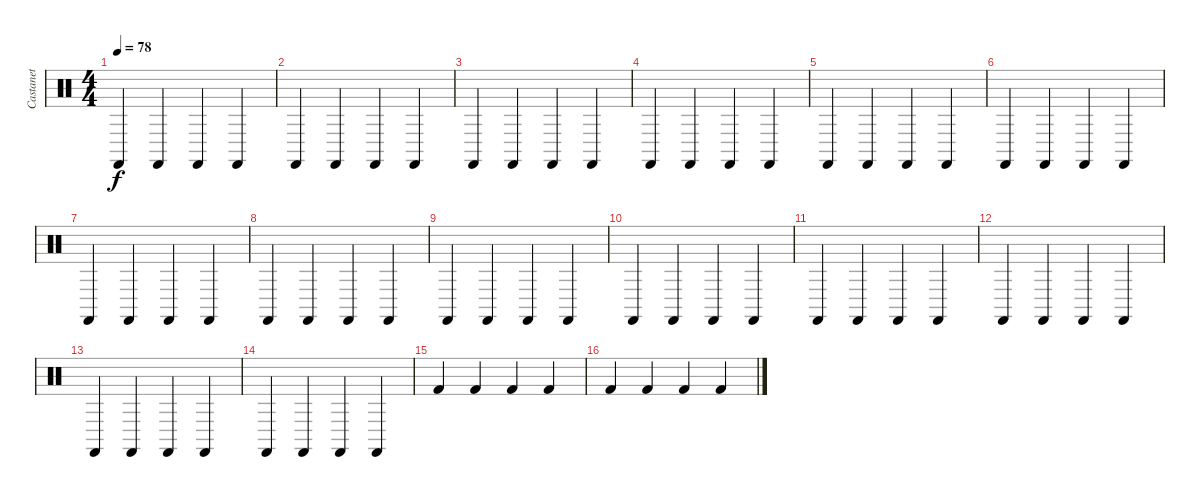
\track ("Castanet" "Castanet") {instrument percussion}
\staff {score}
\articulation defaults
\ts (4 4)
\tempo 78
\clef neutral
\ks c "Castanets (hit)".4{dy f} "Castanets (hit)".4 "Castanets (hit)".4 "Castanets (hit)".4
|
"Castanets (hit)".4 "Castanets (hit)".4 "Castanets (hit)".4 "Castanets (hit)".4 |
"Castanets (hit)".4 "Castanets (hit)".4 "Castanets (hit)".4 "Castanets (hit)".4 |
"Castanets (hit)".4 "Castanets (hit)".4 "Castanets (hit)".4 "Castanets (hit)".4 |
"Castanets (hit)".4 "Castanets (hit)".4 "Castanets (hit)".4 "Castanets (hit)".4 |
"Castanets (hit)".4 "Castanets (hit)".4 "Castanets (hit)".4 "Castanets (hit)".4 |
"Castanets (hit)".4 "Castanets (hit)".4 "Castanets (hit)".4 "Castanets (hit)".4 |
"Castanets (hit)".4 "Castanets (hit)".4 "Castanets (hit)".4 "Castanets (hit)".4 |
"Castanets (hit)".4 "Castanets (hit)".4 "Castanets (hit)".4 "Castanets (hit)".4 |
"Castanets (hit)".4 "Castanets (hit)".4 "Castanets (hit)".4 "Castanets (hit)".4 |
"Castanets (hit)".4 "Castanets (hit)".4 "Castanets (hit)".4 "Castanets (hit)".4 |
"Castanets (hit)".4 "Castanets (hit)".4 "Castanets (hit)".4 "Castanets (hit)".4 |
"Castanets (hit)".4 "Castanets (hit)".4 "Castanets (hit)".4 "Castanets (hit)".4 |
"Castanets (hit)".4 "Castanets (hit)".4 "Castanets (hit)".4 "Castanets (hit)".4 |
"Kick (hit) 2".4 "Kick (hit) 2".4 "Kick (hit) 2".4 "Kick (hit) 2".4 |
"Kick (hit) 2".4 "Kick (hit) 2".4 "Kick (hit) 2".4 "Kick (hit) 2".4
